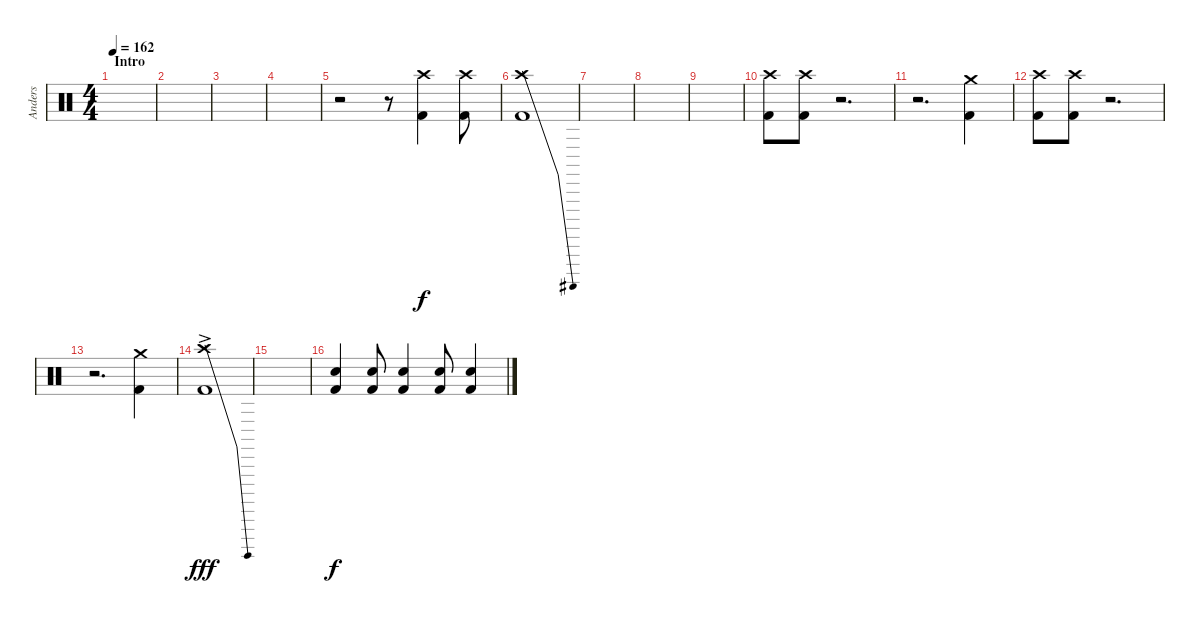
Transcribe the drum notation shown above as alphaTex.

\track ("Anders" "Anders") {instrument percussion}
\staff {score}
\articulation defaults
\ts (4 4)
\section ("" "Intro")
\tempo 162
\clef neutral
\ks c
|
|
|
|
r.2 r.8 ("Crash high (hit)" "Kick (hit) 2").4 ("Crash high (hit)" "Kick (hit) 2").8 |
("Crash high (hit)"{be (bend 0 0 60 2)} "Kick (hit) 2").1 |
|
|
|
("Crash high (hit)" "Kick (hit) 2").8 ("Crash high (hit)" "Kick (hit) 2").8 r.2{d} |
r.2{d} ("Crash medium (hit)" "Kick (hit) 2").4 |
("Crash high (hit)" "Kick (hit) 2").8 ("Crash high (hit)" "Kick (hit) 2").8 r.2{d} |
r.2{d} ("Crash medium (hit)" "Kick (hit) 2").4 |
("Crash high (hit)"{be (bend 0 0 60 4) ac} "Kick (hit) 2").1{dy fff} |
|
("Snare (hit) 2" "Kick (hit) 2").4{dy f} ("Snare (hit) 2" "Kick (hit) 2").8 ("Snare (hit) 2" "Kick (hit) 2").4 ("Snare (hit) 2" "Kick (hit) 2").8 ("Snare (hit) 2" "Kick (hit) 2").4
